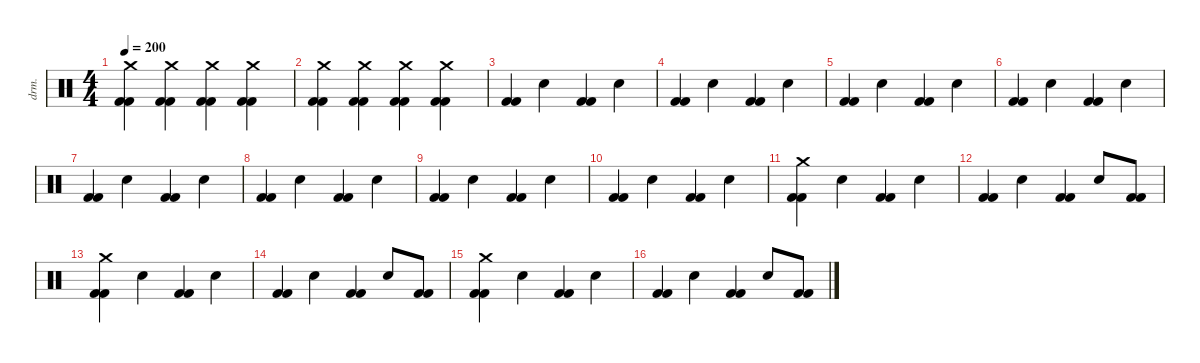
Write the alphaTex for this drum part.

\defaultSystemsLayout 4
\hideDynamics
\bracketExtendMode nobrackets
\track ("Perkusja" "drm.") {instrument percussion}
\staff {score}
\articulation defaults
\ts (4 4)
\tempo 200
\clef neutral
\ks c
("Crash medium (hit)" "Kick (hit) 2" "Kick (hit) 2").4{dy ppp} ("Crash medium (hit)" "Kick (hit) 2" "Kick (hit) 2").4{dy pp} ("Crash medium (hit)" "Kick (hit) 2" "Kick (hit) 2").4{dy p} ("Crash medium (hit)" "Kick (hit) 2" "Kick (hit) 2").4{dy mp} |
("Crash medium (hit)" "Kick (hit) 2" "Kick (hit) 2").4{dy mf} ("Crash medium (hit)" "Kick (hit) 2" "Kick (hit) 2").4{dy f} ("Crash medium (hit)" "Kick (hit) 2" "Kick (hit) 2").4{dy ff} ("Crash medium (hit)" "Kick (hit) 2" "Kick (hit) 2").4{dy fff} |
("Kick (hit) 2" "Kick (hit) 2").4{dy f} "Snare (hit) 2".4 ("Kick (hit) 2" "Kick (hit) 2").4 "Snare (hit) 2".4 |
("Kick (hit) 2" "Kick (hit) 2").4 "Snare (hit) 2".4 ("Kick (hit) 2" "Kick (hit) 2").4 "Snare (hit) 2".4 |
("Kick (hit) 2" "Kick (hit) 2").4 "Snare (hit) 2".4 ("Kick (hit) 2" "Kick (hit) 2").4 "Snare (hit) 2".4 |
("Kick (hit) 2" "Kick (hit) 2").4 "Snare (hit) 2".4 ("Kick (hit) 2" "Kick (hit) 2").4 "Snare (hit) 2".4 |
("Kick (hit) 2" "Kick (hit) 2").4 "Snare (hit) 2".4 ("Kick (hit) 2" "Kick (hit) 2").4 "Snare (hit) 2".4 |
("Kick (hit) 2" "Kick (hit) 2").4 "Snare (hit) 2".4 ("Kick (hit) 2" "Kick (hit) 2").4 "Snare (hit) 2".4 |
("Kick (hit) 2" "Kick (hit) 2").4 "Snare (hit) 2".4 ("Kick (hit) 2" "Kick (hit) 2").4 "Snare (hit) 2".4 |
("Kick (hit) 2" "Kick (hit) 2").4 "Snare (hit) 2".4 ("Kick (hit) 2" "Kick (hit) 2").4 "Snare (hit) 2".4 |
("Crash medium (hit)" "Kick (hit) 2" "Kick (hit) 2").4 "Snare (hit) 2".4 ("Kick (hit) 2" "Kick (hit) 2").4 "Snare (hit) 2".4 |
("Kick (hit) 2" "Kick (hit) 2").4 "Snare (hit) 2".4 ("Kick (hit) 2" "Kick (hit) 2").4 "Snare (hit) 2".8 ("Kick (hit) 2" "Kick (hit) 2").8 |
("Crash medium (hit)" "Kick (hit) 2" "Kick (hit) 2").4 "Snare (hit) 2".4 ("Kick (hit) 2" "Kick (hit) 2").4 "Snare (hit) 2".4 |
("Kick (hit) 2" "Kick (hit) 2").4 "Snare (hit) 2".4 ("Kick (hit) 2" "Kick (hit) 2").4 "Snare (hit) 2".8 ("Kick (hit) 2" "Kick (hit) 2").8 |
("Crash medium (hit)" "Kick (hit) 2" "Kick (hit) 2").4 "Snare (hit) 2".4 ("Kick (hit) 2" "Kick (hit) 2").4 "Snare (hit) 2".4 |
("Kick (hit) 2" "Kick (hit) 2").4 "Snare (hit) 2".4 ("Kick (hit) 2" "Kick (hit) 2").4 "Snare (hit) 2".8 ("Kick (hit) 2" "Kick (hit) 2").8
